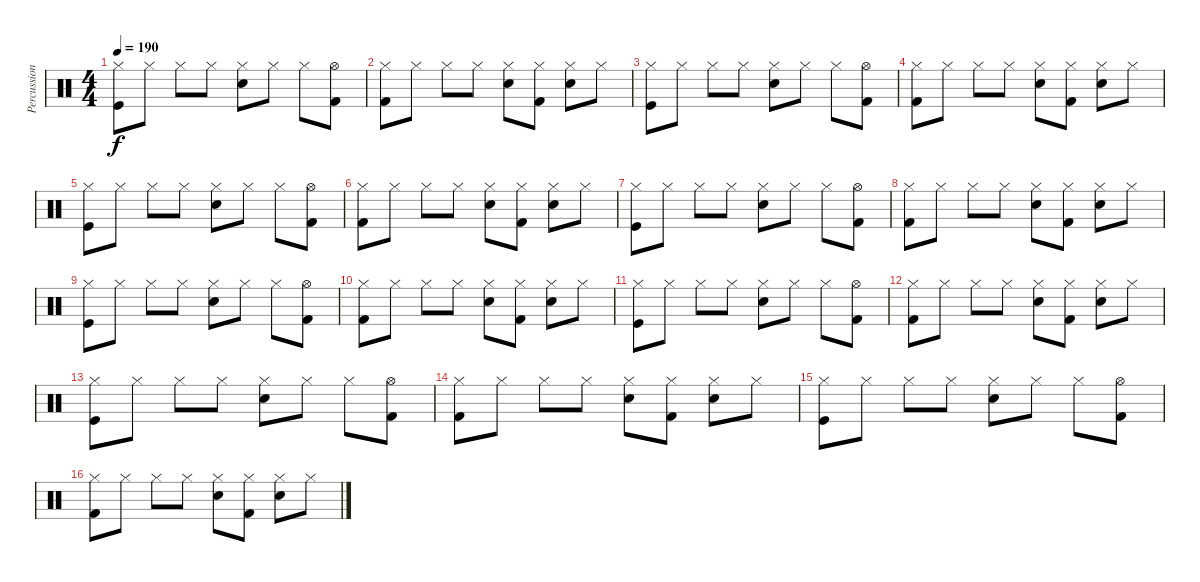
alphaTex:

\track ("Percussion" "Percussion") {instrument percussion}
\staff {score}
\articulation defaults
\ts (4 4)
\tempo 190
\clef neutral
\ks c
("Kick (hit)" "Hi-Hat (closed)").8{dy f} "Hi-Hat (closed)".8 "Hi-Hat (closed)".8 "Hi-Hat (closed)".8 ("Snare (hit) 2" "Hi-Hat (closed)").8 "Hi-Hat (closed)".8 "Hi-Hat (closed)".8 ("Kick (hit) 2" "Hi-Hat (open)").8 |
("Kick (hit) 2" "Hi-Hat (closed)").8 "Hi-Hat (closed)".8 "Hi-Hat (closed)".8 "Hi-Hat (closed)".8 ("Snare (hit) 2" "Hi-Hat (closed)").8 ("Kick (hit) 2" "Hi-Hat (closed)").8 ("Snare (hit) 2" "Hi-Hat (closed)").8 "Hi-Hat (closed)".8 |
("Kick (hit)" "Hi-Hat (closed)").8 "Hi-Hat (closed)".8 "Hi-Hat (closed)".8 "Hi-Hat (closed)".8 ("Snare (hit) 2" "Hi-Hat (closed)").8 "Hi-Hat (closed)".8 "Hi-Hat (closed)".8 ("Kick (hit) 2" "Hi-Hat (open)").8 |
("Kick (hit) 2" "Hi-Hat (closed)").8 "Hi-Hat (closed)".8 "Hi-Hat (closed)".8 "Hi-Hat (closed)".8 ("Snare (hit) 2" "Hi-Hat (closed)").8 ("Kick (hit) 2" "Hi-Hat (closed)").8 ("Snare (hit) 2" "Hi-Hat (closed)").8 "Hi-Hat (closed)".8 |
("Kick (hit)" "Hi-Hat (closed)").8 "Hi-Hat (closed)".8 "Hi-Hat (closed)".8 "Hi-Hat (closed)".8 ("Snare (hit) 2" "Hi-Hat (closed)").8 "Hi-Hat (closed)".8 "Hi-Hat (closed)".8 ("Kick (hit) 2" "Hi-Hat (open)").8 |
("Kick (hit) 2" "Hi-Hat (closed)").8 "Hi-Hat (closed)".8 "Hi-Hat (closed)".8 "Hi-Hat (closed)".8 ("Snare (hit) 2" "Hi-Hat (closed)").8 ("Kick (hit) 2" "Hi-Hat (closed)").8 ("Snare (hit) 2" "Hi-Hat (closed)").8 "Hi-Hat (closed)".8 |
("Kick (hit)" "Hi-Hat (closed)").8 "Hi-Hat (closed)".8 "Hi-Hat (closed)".8 "Hi-Hat (closed)".8 ("Snare (hit) 2" "Hi-Hat (closed)").8 "Hi-Hat (closed)".8 "Hi-Hat (closed)".8 ("Kick (hit) 2" "Hi-Hat (open)").8 |
("Kick (hit) 2" "Hi-Hat (closed)").8 "Hi-Hat (closed)".8 "Hi-Hat (closed)".8 "Hi-Hat (closed)".8 ("Snare (hit) 2" "Hi-Hat (closed)").8 ("Kick (hit) 2" "Hi-Hat (closed)").8 ("Snare (hit) 2" "Hi-Hat (closed)").8 "Hi-Hat (closed)".8 |
("Kick (hit)" "Hi-Hat (closed)").8 "Hi-Hat (closed)".8 "Hi-Hat (closed)".8 "Hi-Hat (closed)".8 ("Snare (hit) 2" "Hi-Hat (closed)").8 "Hi-Hat (closed)".8 "Hi-Hat (closed)".8 ("Kick (hit) 2" "Hi-Hat (open)").8 |
("Kick (hit) 2" "Hi-Hat (closed)").8 "Hi-Hat (closed)".8 "Hi-Hat (closed)".8 "Hi-Hat (closed)".8 ("Snare (hit) 2" "Hi-Hat (closed)").8 ("Kick (hit) 2" "Hi-Hat (closed)").8 ("Snare (hit) 2" "Hi-Hat (closed)").8 "Hi-Hat (closed)".8 |
("Kick (hit)" "Hi-Hat (closed)").8 "Hi-Hat (closed)".8 "Hi-Hat (closed)".8 "Hi-Hat (closed)".8 ("Snare (hit) 2" "Hi-Hat (closed)").8 "Hi-Hat (closed)".8 "Hi-Hat (closed)".8 ("Kick (hit) 2" "Hi-Hat (open)").8 |
("Kick (hit) 2" "Hi-Hat (closed)").8 "Hi-Hat (closed)".8 "Hi-Hat (closed)".8 "Hi-Hat (closed)".8 ("Snare (hit) 2" "Hi-Hat (closed)").8 ("Kick (hit) 2" "Hi-Hat (closed)").8 ("Snare (hit) 2" "Hi-Hat (closed)").8 "Hi-Hat (closed)".8 |
("Kick (hit)" "Hi-Hat (closed)").8 "Hi-Hat (closed)".8 "Hi-Hat (closed)".8 "Hi-Hat (closed)".8 ("Snare (hit) 2" "Hi-Hat (closed)").8 "Hi-Hat (closed)".8 "Hi-Hat (closed)".8 ("Kick (hit) 2" "Hi-Hat (open)").8 |
("Kick (hit) 2" "Hi-Hat (closed)").8 "Hi-Hat (closed)".8 "Hi-Hat (closed)".8 "Hi-Hat (closed)".8 ("Snare (hit) 2" "Hi-Hat (closed)").8 ("Kick (hit) 2" "Hi-Hat (closed)").8 ("Snare (hit) 2" "Hi-Hat (closed)").8 "Hi-Hat (closed)".8 |
("Kick (hit)" "Hi-Hat (closed)").8 "Hi-Hat (closed)".8 "Hi-Hat (closed)".8 "Hi-Hat (closed)".8 ("Snare (hit) 2" "Hi-Hat (closed)").8 "Hi-Hat (closed)".8 "Hi-Hat (closed)".8 ("Kick (hit) 2" "Hi-Hat (open)").8 |
("Kick (hit) 2" "Hi-Hat (closed)").8 "Hi-Hat (closed)".8 "Hi-Hat (closed)".8 "Hi-Hat (closed)".8 ("Snare (hit) 2" "Hi-Hat (closed)").8 ("Kick (hit) 2" "Hi-Hat (closed)").8 ("Snare (hit) 2" "Hi-Hat (closed)").8 "Hi-Hat (closed)".8
